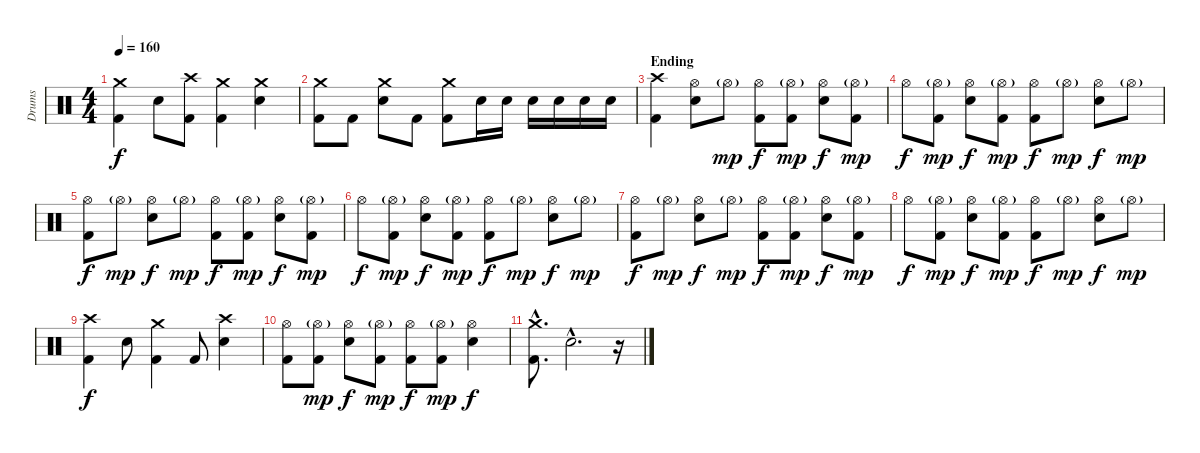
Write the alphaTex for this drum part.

\track ("Drums" "Drums") {instrument percussion}
\staff {score}
\articulation defaults
\ts (4 4)
\tempo 160
\clef neutral
\ks c
("Crash medium (hit)" "Kick (hit) 2").4{dy f} "Snare (hit) 2".8 ("Crash high (hit)" "Kick (hit) 2").8 ("Crash medium (hit)" "Kick (hit) 2").4 ("Crash medium (hit)" "Snare (hit) 2").4 |
("Crash medium (hit)" "Kick (hit) 2").8 "Kick (hit) 2".8 ("Crash medium (hit)" "Snare (hit) 2").8 "Kick (hit) 2".8 ("Crash medium (hit)" "Kick (hit) 2").8 "Snare (hit) 2".16 "Snare (hit) 2".16 "Snare (hit) 2".16 "Snare (hit) 2".16 "Snare (hit) 2".16 "Snare (hit) 2".16 |
\section ("" "Ending")
("Crash high (hit)" "Kick (hit) 2").4 ("Hi-Hat (open)" "Snare (hit) 2").8 "Hi-Hat (open)"{g}.8{dy mp} ("Hi-Hat (open)" "Kick (hit) 2").8{dy f} ("Hi-Hat (open)"{g} "Kick (hit) 2").8{dy mp} ("Hi-Hat (open)" "Snare (hit) 2").8{dy f} ("Hi-Hat (open)"{g} "Kick (hit) 2").8{dy mp} |
"Hi-Hat (open)".8{dy f} ("Hi-Hat (open)"{g} "Kick (hit) 2").8{dy mp} ("Hi-Hat (open)" "Snare (hit) 2").8{dy f} ("Hi-Hat (open)"{g} "Kick (hit) 2").8{dy mp} ("Hi-Hat (open)" "Kick (hit) 2").8{dy f} "Hi-Hat (open)"{g}.8{dy mp} ("Hi-Hat (open)" "Snare (hit) 2").8{dy f} "Hi-Hat (open)"{g}.8{dy mp} |
("Hi-Hat (open)" "Kick (hit) 2").8{dy f} "Hi-Hat (open)"{g}.8{dy mp} ("Hi-Hat (open)" "Snare (hit) 2").8{dy f} "Hi-Hat (open)"{g}.8{dy mp} ("Hi-Hat (open)" "Kick (hit) 2").8{dy f} ("Hi-Hat (open)"{g} "Kick (hit) 2").8{dy mp} ("Hi-Hat (open)" "Snare (hit) 2").8{dy f} ("Hi-Hat (open)"{g} "Kick (hit) 2").8{dy mp} |
"Hi-Hat (open)".8{dy f} ("Hi-Hat (open)"{g} "Kick (hit) 2").8{dy mp} ("Hi-Hat (open)" "Snare (hit) 2").8{dy f} ("Hi-Hat (open)"{g} "Kick (hit) 2").8{dy mp} ("Hi-Hat (open)" "Kick (hit) 2").8{dy f} "Hi-Hat (open)"{g}.8{dy mp} ("Hi-Hat (open)" "Snare (hit) 2").8{dy f} "Hi-Hat (open)"{g}.8{dy mp} |
("Hi-Hat (open)" "Kick (hit) 2").8{dy f} "Hi-Hat (open)"{g}.8{dy mp} ("Hi-Hat (open)" "Snare (hit) 2").8{dy f} "Hi-Hat (open)"{g}.8{dy mp} ("Hi-Hat (open)" "Kick (hit) 2").8{dy f} ("Hi-Hat (open)"{g} "Kick (hit) 2").8{dy mp} ("Hi-Hat (open)" "Snare (hit) 2").8{dy f} ("Hi-Hat (open)"{g} "Kick (hit) 2").8{dy mp} |
"Hi-Hat (open)".8{dy f} ("Hi-Hat (open)"{g} "Kick (hit) 2").8{dy mp} ("Hi-Hat (open)" "Snare (hit) 2").8{dy f} ("Hi-Hat (open)"{g} "Kick (hit) 2").8{dy mp} ("Hi-Hat (open)" "Kick (hit) 2").8{dy f} "Hi-Hat (open)"{g}.8{dy mp} ("Hi-Hat (open)" "Snare (hit) 2").8{dy f} "Hi-Hat (open)"{g}.8{dy mp} |
("Crash high (hit)" "Kick (hit) 2").4{dy f} "Snare (hit) 2".8 ("Crash medium (hit)" "Kick (hit) 2").4 "Kick (hit) 2".8 ("Crash high (hit)" "Snare (hit) 2").4 |
("Hi-Hat (open)" "Kick (hit) 2").8 ("Hi-Hat (open)"{g} "Kick (hit) 2").8{dy mp} ("Hi-Hat (open)" "Snare (hit) 2").8{dy f} ("Hi-Hat (open)"{g} "Kick (hit) 2").8{dy mp} ("Hi-Hat (open)" "Kick (hit) 2").8{dy f} ("Hi-Hat (open)"{g} "Kick (hit) 2").8{dy mp} ("Hi-Hat (open)" "Snare (hit) 2").4{dy f} |
("Crash medium (hit)"{hac} "Kick (hit) 2"{hac}).8{d} "Snare (hit)"{hac x}.2{d volume 0} r.16
